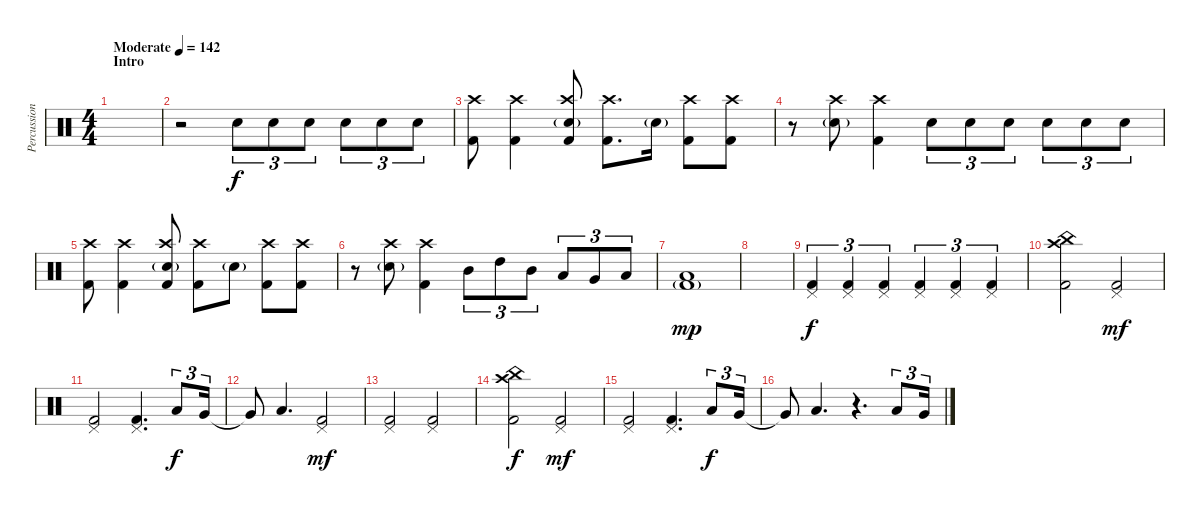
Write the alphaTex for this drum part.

\track ("Percussion" "Percussion") {instrument percussion}
\staff {score}
\articulation defaults
\ts (4 4)
\section ("" "Intro")
\tempo (142 "Moderate")
\clef neutral
\ks c
|
r.2 "Electric Snare (hit)".8{tu (3 2)} "Electric Snare (hit)".8{tu (3 2)} "Electric Snare (hit)".8{tu (3 2)} "Electric Snare (hit)".8{tu (3 2)} "Electric Snare (hit)".8{tu (3 2)} "Electric Snare (hit)".8{tu (3 2)} |
("Crash high (hit)" "Kick (hit) 2").8 ("Crash high (hit)" "Kick (hit) 2").4 ("Crash high (hit)" "Electric Snare (hit)"{g} "Kick (hit) 2").8 ("Crash high (hit)" "Kick (hit) 2").8{d} "Electric Snare (hit)"{g}.16 ("Crash high (hit)" "Kick (hit) 2").8 ("Crash high (hit)" "Kick (hit) 2").8 |
r.8 ("Crash high (hit)" "Electric Snare (hit)"{g}).8 ("Crash high (hit)" "Kick (hit) 2").4 "Electric Snare (hit)".8{tu (3 2)} "Electric Snare (hit)".8{tu (3 2)} "Electric Snare (hit)".8{tu (3 2)} "Electric Snare (hit)".8{tu (3 2)} "Electric Snare (hit)".8{tu (3 2)} "Electric Snare (hit)".8{tu (3 2)} |
("Crash high (hit)" "Kick (hit) 2").8 ("Crash high (hit)" "Kick (hit) 2").4 ("Crash high (hit)" "Electric Snare (hit)"{g} "Kick (hit) 2").8 ("Crash high (hit)" "Kick (hit) 2").8 "Electric Snare (hit)"{g}.8 ("Crash high (hit)" "Kick (hit) 2").8 ("Crash high (hit)" "Kick (hit) 2").8 |
r.8 ("Crash high (hit)" "Electric Snare (hit)"{g}).8 ("Crash high (hit)" "Kick (hit) 2").4 "Mid Tom (hit)".8{tu (3 2)} "High Tom (hit)".8{tu (3 2)} "Mid Tom (hit)".8{tu (3 2)} "Low Tom (hit)".8{tu (3 2)} "Very Low Tom (hit)".8{tu (3 2)} "Low Floor Tom (hit)".8{tu (3 2)} |
("Low Floor Tom (hit)" "Kick (hit) 2"{g}).1{dy mp} |
|
("Pedal Hi-Hat (hit)" "Kick (hit) 2").4{tu (3 2) dy f} ("Pedal Hi-Hat (hit)" "Kick (hit) 2").4{tu (3 2)} ("Pedal Hi-Hat (hit)" "Kick (hit) 2").4{tu (3 2)} ("Pedal Hi-Hat (hit)" "Kick (hit) 2").4{tu (3 2)} ("Pedal Hi-Hat (hit)" "Kick (hit) 2").4{tu (3 2)} ("Pedal Hi-Hat (hit)" "Kick (hit) 2").4{tu (3 2)} |
("China (hit)" "Crash high (hit)" "Kick (hit) 2").2 ("Pedal Hi-Hat (hit)" "Kick (hit) 2").2{dy mf} |
("Pedal Hi-Hat (hit)" "Kick (hit) 2").2 ("Pedal Hi-Hat (hit)" "Kick (hit) 2").4{d} "Low Floor Tom (hit)".8{tu (3 2) dy f} "Very Low Tom (hit)".16{tu (3 2)} |
"Very Low Tom (hit)"{t}.8 "Low Floor Tom (hit)".4{d} ("Pedal Hi-Hat (hit)" "Kick (hit) 2").2{dy mf} |
("Pedal Hi-Hat (hit)" "Kick (hit) 2").2 ("Pedal Hi-Hat (hit)" "Kick (hit) 2").2 |
("China (hit)" "Crash high (hit)" "Kick (hit) 2").2{dy f} ("Pedal Hi-Hat (hit)" "Kick (hit) 2").2{dy mf} |
("Pedal Hi-Hat (hit)" "Kick (hit) 2").2 ("Pedal Hi-Hat (hit)" "Kick (hit) 2").4{d} "Low Floor Tom (hit)".8{tu (3 2) dy f} "Very Low Tom (hit)".16{tu (3 2)} |
"Very Low Tom (hit)"{t}.8 "Low Floor Tom (hit)".4{d} r.4{d} "Low Floor Tom (hit)".8{tu (3 2)} "Very Low Tom (hit)".16{tu (3 2)}
